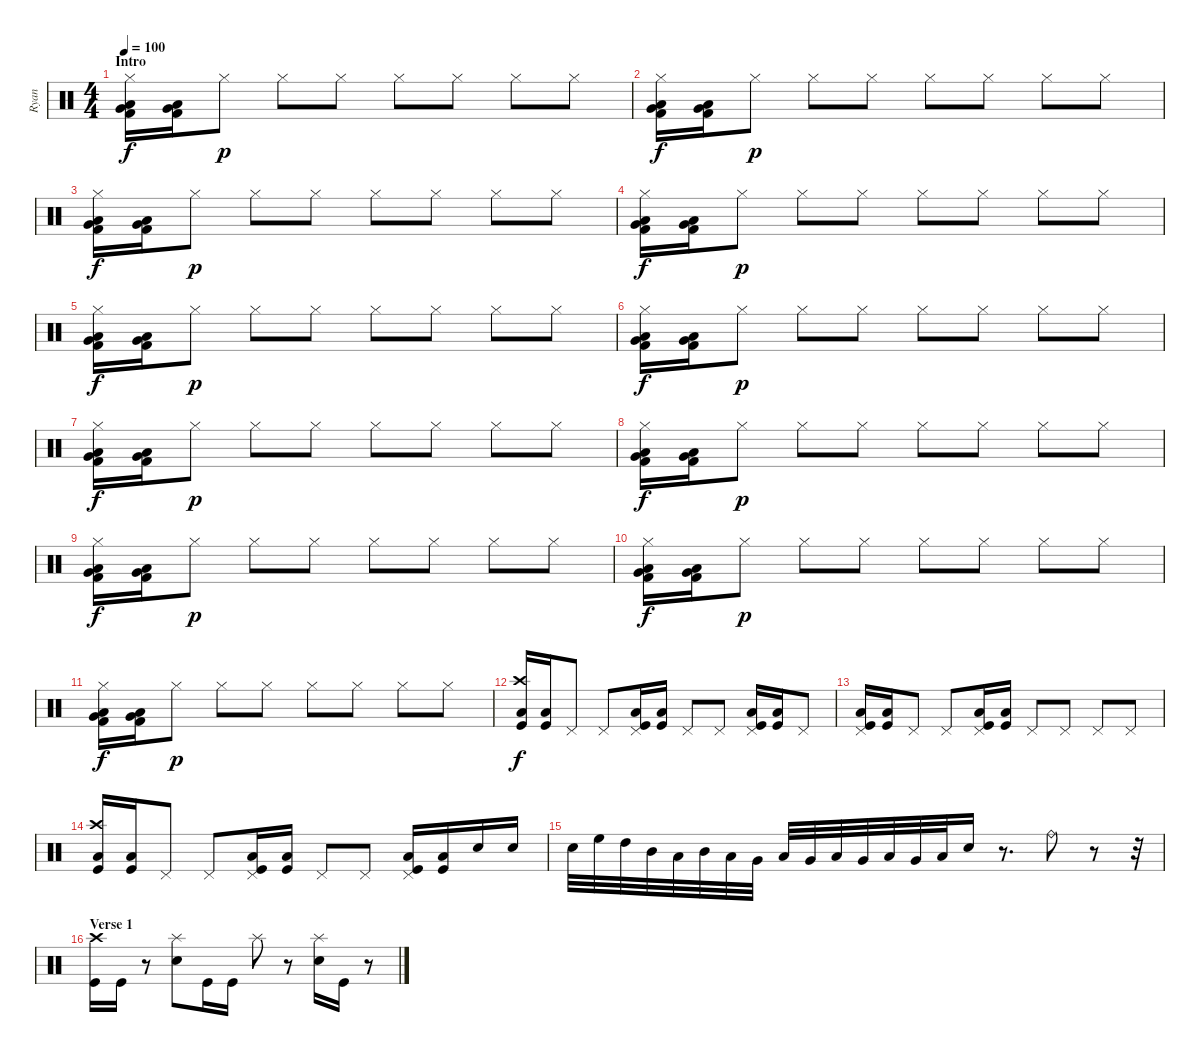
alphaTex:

\track ("Ryan" "Ryan") {instrument percussion}
\staff {score}
\articulation defaults
\ts (4 4)
\section ("" "Intro")
\tempo 100
\clef neutral
\ks c
("Hi-Hat (closed)" "Low Floor Tom (hit)" "Very Low Tom (hit)" "Kick (hit) 2").16{dy f} ("Low Floor Tom (hit)" "Very Low Tom (hit)" "Kick (hit) 2").16 "Hi-Hat (closed)".8{dy p} "Hi-Hat (closed)".8 "Hi-Hat (closed)".8 "Hi-Hat (closed)".8 "Hi-Hat (closed)".8 "Hi-Hat (closed)".8 "Hi-Hat (closed)".8 |
("Hi-Hat (closed)" "Low Floor Tom (hit)" "Very Low Tom (hit)" "Kick (hit) 2").16{dy f} ("Low Floor Tom (hit)" "Very Low Tom (hit)" "Kick (hit) 2").16 "Hi-Hat (closed)".8{dy p} "Hi-Hat (closed)".8 "Hi-Hat (closed)".8 "Hi-Hat (closed)".8 "Hi-Hat (closed)".8 "Hi-Hat (closed)".8 "Hi-Hat (closed)".8 |
("Hi-Hat (closed)" "Low Floor Tom (hit)" "Very Low Tom (hit)" "Kick (hit) 2").16{dy f} ("Low Floor Tom (hit)" "Very Low Tom (hit)" "Kick (hit) 2").16 "Hi-Hat (closed)".8{dy p} "Hi-Hat (closed)".8 "Hi-Hat (closed)".8 "Hi-Hat (closed)".8 "Hi-Hat (closed)".8 "Hi-Hat (closed)".8 "Hi-Hat (closed)".8 |
("Hi-Hat (closed)" "Low Floor Tom (hit)" "Very Low Tom (hit)" "Kick (hit) 2").16{dy f} ("Low Floor Tom (hit)" "Very Low Tom (hit)" "Kick (hit) 2").16 "Hi-Hat (closed)".8{dy p} "Hi-Hat (closed)".8 "Hi-Hat (closed)".8 "Hi-Hat (closed)".8 "Hi-Hat (closed)".8 "Hi-Hat (closed)".8 "Hi-Hat (closed)".8 |
("Hi-Hat (closed)" "Low Floor Tom (hit)" "Very Low Tom (hit)" "Kick (hit) 2").16{dy f} ("Low Floor Tom (hit)" "Very Low Tom (hit)" "Kick (hit) 2").16 "Hi-Hat (closed)".8{dy p} "Hi-Hat (closed)".8 "Hi-Hat (closed)".8 "Hi-Hat (closed)".8 "Hi-Hat (closed)".8 "Hi-Hat (closed)".8 "Hi-Hat (closed)".8 |
("Hi-Hat (closed)" "Low Floor Tom (hit)" "Very Low Tom (hit)" "Kick (hit) 2").16{dy f} ("Low Floor Tom (hit)" "Very Low Tom (hit)" "Kick (hit) 2").16 "Hi-Hat (closed)".8{dy p} "Hi-Hat (closed)".8 "Hi-Hat (closed)".8 "Hi-Hat (closed)".8 "Hi-Hat (closed)".8 "Hi-Hat (closed)".8 "Hi-Hat (closed)".8 |
("Hi-Hat (closed)" "Low Floor Tom (hit)" "Very Low Tom (hit)" "Kick (hit) 2").16{dy f} ("Low Floor Tom (hit)" "Very Low Tom (hit)" "Kick (hit) 2").16 "Hi-Hat (closed)".8{dy p} "Hi-Hat (closed)".8 "Hi-Hat (closed)".8 "Hi-Hat (closed)".8 "Hi-Hat (closed)".8 "Hi-Hat (closed)".8 "Hi-Hat (closed)".8 |
("Hi-Hat (closed)" "Low Floor Tom (hit)" "Very Low Tom (hit)" "Kick (hit) 2").16{dy f} ("Low Floor Tom (hit)" "Very Low Tom (hit)" "Kick (hit) 2").16 "Hi-Hat (closed)".8{dy p} "Hi-Hat (closed)".8 "Hi-Hat (closed)".8 "Hi-Hat (closed)".8 "Hi-Hat (closed)".8 "Hi-Hat (closed)".8 "Hi-Hat (closed)".8 |
("Hi-Hat (closed)" "Low Floor Tom (hit)" "Very Low Tom (hit)" "Kick (hit) 2").16{dy f} ("Low Floor Tom (hit)" "Very Low Tom (hit)" "Kick (hit) 2").16 "Hi-Hat (closed)".8{dy p} "Hi-Hat (closed)".8 "Hi-Hat (closed)".8 "Hi-Hat (closed)".8 "Hi-Hat (closed)".8 "Hi-Hat (closed)".8 "Hi-Hat (closed)".8 |
("Hi-Hat (closed)" "Low Floor Tom (hit)" "Very Low Tom (hit)" "Kick (hit) 2").16{dy f} ("Low Floor Tom (hit)" "Very Low Tom (hit)" "Kick (hit) 2").16 "Hi-Hat (closed)".8{dy p} "Hi-Hat (closed)".8 "Hi-Hat (closed)".8 "Hi-Hat (closed)".8 "Hi-Hat (closed)".8 "Hi-Hat (closed)".8 "Hi-Hat (closed)".8 |
("Hi-Hat (closed)" "Low Floor Tom (hit)" "Very Low Tom (hit)" "Kick (hit) 2").16{dy f} ("Low Floor Tom (hit)" "Very Low Tom (hit)" "Kick (hit) 2").16 "Hi-Hat (closed)".8{dy p} "Hi-Hat (closed)".8 "Hi-Hat (closed)".8 "Hi-Hat (closed)".8 "Hi-Hat (closed)".8 "Hi-Hat (closed)".8 "Hi-Hat (closed)".8 |
("Crash high (hit)" "Low Floor Tom (hit)" "Kick (hit)").16{dy f} ("Low Floor Tom (hit)" "Kick (hit)").16 "Pedal Hi-Hat (hit)".8 "Pedal Hi-Hat (hit)".8 ("Pedal Hi-Hat (hit)" "Low Floor Tom (hit)" "Kick (hit)").16 ("Low Floor Tom (hit)" "Kick (hit)").16 "Pedal Hi-Hat (hit)".8 "Pedal Hi-Hat (hit)".8 ("Pedal Hi-Hat (hit)" "Low Floor Tom (hit)" "Kick (hit)").16 ("Low Floor Tom (hit)" "Kick (hit)").16 "Pedal Hi-Hat (hit)".8 |
("Pedal Hi-Hat (hit)" "Low Floor Tom (hit)" "Kick (hit)").16 ("Low Floor Tom (hit)" "Kick (hit)").16 "Pedal Hi-Hat (hit)".8 "Pedal Hi-Hat (hit)".8 ("Pedal Hi-Hat (hit)" "Low Floor Tom (hit)" "Kick (hit)").16 ("Low Floor Tom (hit)" "Kick (hit)").16 "Pedal Hi-Hat (hit)".8 "Pedal Hi-Hat (hit)".8 "Pedal Hi-Hat (hit)".8 "Pedal Hi-Hat (hit)".8 |
("Crash high (hit)" "Low Floor Tom (hit)" "Kick (hit)").16 ("Low Floor Tom (hit)" "Kick (hit)").16 "Pedal Hi-Hat (hit)".8 "Pedal Hi-Hat (hit)".8 ("Pedal Hi-Hat (hit)" "Low Floor Tom (hit)" "Kick (hit)").16 ("Low Floor Tom (hit)" "Kick (hit)").16 "Pedal Hi-Hat (hit)".8 "Pedal Hi-Hat (hit)".8 ("Pedal Hi-Hat (hit)" "Low Floor Tom (hit)" "Kick (hit)").16 ("Low Floor Tom (hit)" "Kick (hit)").16 "Electric Snare (hit)".16 "Electric Snare (hit)".16 |
"Electric Snare (hit)".32 "High Floor Tom (hit)".32 "High Tom (hit)".32 "Mid Tom (hit)".32 "Low Tom (hit)".32 "Mid Tom (hit)".32 "Low Tom (hit)".32 "Very Low Tom (hit)".32 "Low Tom (hit)".32 "Very Low Tom (hit)".32 "Low Floor Tom (hit)".32 "Very Low Tom (hit)".32 "Low Tom (hit)".32 "Very Low Tom (hit)".32 "Low Floor Tom (hit)".32 "Electric Snare (hit)".16 r.8{d} "Ride (bell)".8 r.8 r.32 |
\section ("" "Verse 1")
("Crash high (hit)" "Kick (hit)").16 "Kick (hit)".16 r.8 ("Splash (hit)" "Electric Snare (hit)").8 "Kick (hit)".16 "Kick (hit)".16 "Splash (hit)".8 r.8 ("Splash (hit)" "Electric Snare (hit)").16 "Kick (hit)".16 r.8
